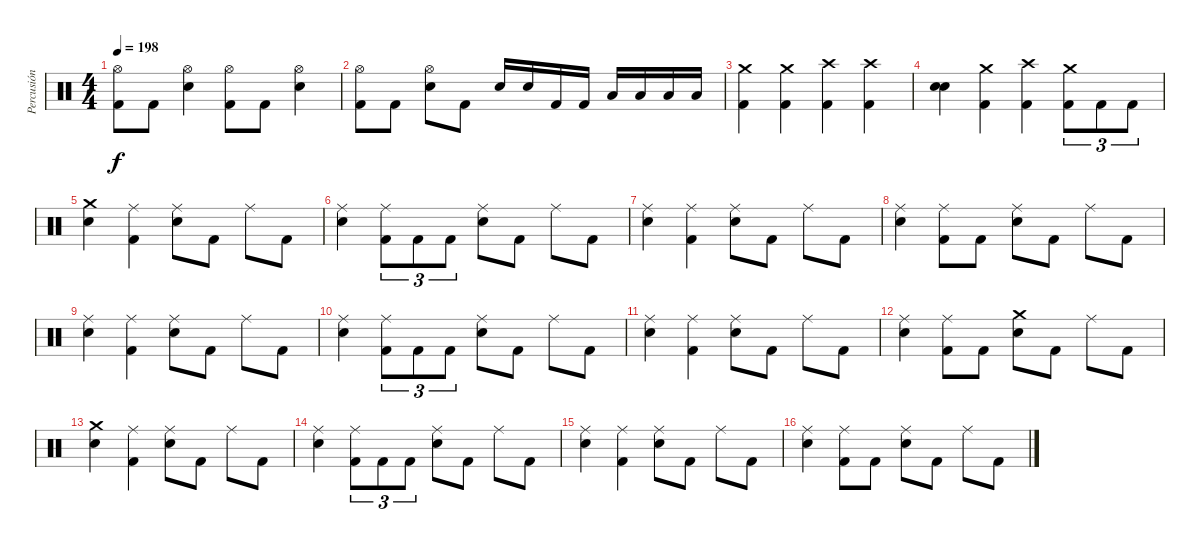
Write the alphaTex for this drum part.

\track ("Percusión" "Percusión") {instrument percussion}
\staff {score}
\articulation defaults
\ts (4 4)
\tempo 198
\clef neutral
\ks c
("Hi-Hat (open)" "Kick (hit) 2").8{dy f} "Kick (hit) 2".8 ("Hi-Hat (open)" "Electric Snare (hit)").4 ("Hi-Hat (open)" "Kick (hit) 2").8 "Kick (hit) 2".8 ("Hi-Hat (open)" "Electric Snare (hit)").4 |
("Hi-Hat (open)" "Kick (hit) 2").8 "Kick (hit) 2".8 ("Hi-Hat (open)" "Electric Snare (hit)").8 "Kick (hit) 2".8 "Electric Snare (hit)".16 "Electric Snare (hit)".16 "Kick (hit) 2".16 "Kick (hit) 2".16 "Low Tom (hit)".16 "Low Tom (hit)".16 "Low Tom (hit)".16 "Low Tom (hit)".16 |
("Crash medium (hit)" "Kick (hit) 2").4 ("Crash medium (hit)" "Kick (hit) 2").4 ("Crash high (hit)" "Kick (hit) 2").4 ("Crash high (hit)" "Kick (hit) 2").4 |
("Electric Snare (hit)" "Electric Snare (hit)").4{bd 120} ("Crash medium (hit)" "Kick (hit) 2").4 ("Crash high (hit)" "Kick (hit) 2").4 ("Crash medium (hit)" "Kick (hit) 2").8{tu (3 2)} "Kick (hit) 2".8{tu (3 2)} "Kick (hit) 2".8{tu (3 2)} |
("Crash medium (hit)" "Electric Snare (hit)").4 ("Ride (middle)" "Kick (hit) 2").4 ("Ride (middle)" "Electric Snare (hit)").8 "Kick (hit) 2".8 "Ride (middle)".8 "Kick (hit) 2".8 |
("Ride (middle)" "Electric Snare (hit)").4 ("Ride (middle)" "Kick (hit) 2").8{tu (3 2)} "Kick (hit) 2".8{tu (3 2)} "Kick (hit) 2".8{tu (3 2)} ("Ride (middle)" "Electric Snare (hit)").8 "Kick (hit) 2".8 "Ride (middle)".8 "Kick (hit) 2".8 |
("Ride (middle)" "Electric Snare (hit)").4 ("Ride (middle)" "Kick (hit) 2").4 ("Ride (middle)" "Electric Snare (hit)").8 "Kick (hit) 2".8 "Ride (middle)".8 "Kick (hit) 2".8 |
("Ride (middle)" "Electric Snare (hit)").4 ("Ride (middle)" "Kick (hit) 2").8 "Kick (hit) 2".8 ("Ride (middle)" "Electric Snare (hit)").8 "Kick (hit) 2".8 "Ride (middle)".8 "Kick (hit) 2".8 |
("Ride (middle)" "Electric Snare (hit)").4 ("Ride (middle)" "Kick (hit) 2").4 ("Ride (middle)" "Electric Snare (hit)").8 "Kick (hit) 2".8 "Ride (middle)".8 "Kick (hit) 2".8 |
("Ride (middle)" "Electric Snare (hit)").4 ("Ride (middle)" "Kick (hit) 2").8{tu (3 2)} "Kick (hit) 2".8{tu (3 2)} "Kick (hit) 2".8{tu (3 2)} ("Ride (middle)" "Electric Snare (hit)").8 "Kick (hit) 2".8 "Ride (middle)".8 "Kick (hit) 2".8 |
("Ride (middle)" "Electric Snare (hit)").4 ("Ride (middle)" "Kick (hit) 2").4 ("Ride (middle)" "Electric Snare (hit)").8 "Kick (hit) 2".8 "Ride (middle)".8 "Kick (hit) 2".8 |
("Ride (middle)" "Electric Snare (hit)").4 ("Ride (middle)" "Kick (hit) 2").8 "Kick (hit) 2".8 ("Crash medium (hit)" "Electric Snare (hit)").8 "Kick (hit) 2".8 "Ride (middle)".8 "Kick (hit) 2".8 |
("Crash medium (hit)" "Electric Snare (hit)").4 ("Ride (middle)" "Kick (hit) 2").4 ("Ride (middle)" "Electric Snare (hit)").8 "Kick (hit) 2".8 "Ride (middle)".8 "Kick (hit) 2".8 |
("Ride (middle)" "Electric Snare (hit)").4 ("Ride (middle)" "Kick (hit) 2").8{tu (3 2)} "Kick (hit) 2".8{tu (3 2)} "Kick (hit) 2".8{tu (3 2)} ("Ride (middle)" "Electric Snare (hit)").8 "Kick (hit) 2".8 "Ride (middle)".8 "Kick (hit) 2".8 |
("Ride (middle)" "Electric Snare (hit)").4 ("Ride (middle)" "Kick (hit) 2").4 ("Ride (middle)" "Electric Snare (hit)").8 "Kick (hit) 2".8 "Ride (middle)".8 "Kick (hit) 2".8 |
("Ride (middle)" "Electric Snare (hit)").4 ("Ride (middle)" "Kick (hit) 2").8 "Kick (hit) 2".8 ("Ride (middle)" "Electric Snare (hit)").8 "Kick (hit) 2".8 "Ride (middle)".8 "Kick (hit) 2".8
